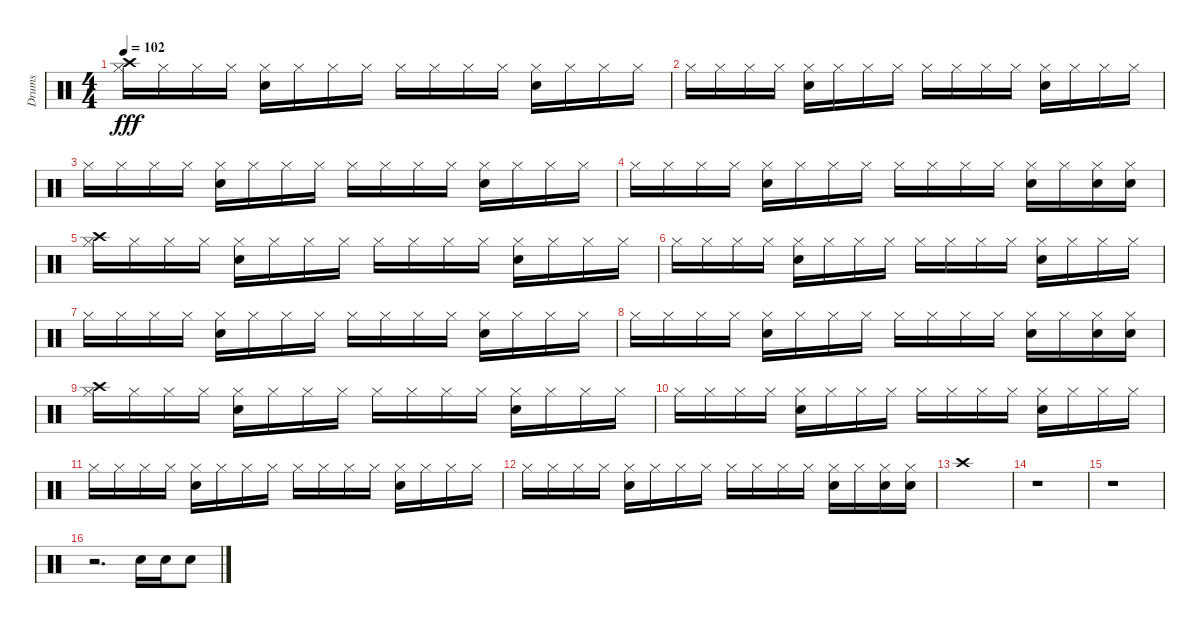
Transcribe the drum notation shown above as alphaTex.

\track ("Drums" "Drums") {instrument percussion}
\staff {score}
\articulation defaults
\ts (4 4)
\tempo 102
\clef neutral
\ks c
("Hi-Hat (closed)" "Crash high (hit)").16{dy fff} "Hi-Hat (closed)".16 "Hi-Hat (closed)".16 "Hi-Hat (closed)".16 ("Hi-Hat (closed)" "Hand Clap (hit)").16 "Hi-Hat (closed)".16 "Hi-Hat (closed)".16 "Hi-Hat (closed)".16 "Hi-Hat (closed)".16 "Hi-Hat (closed)".16 "Hi-Hat (closed)".16 "Hi-Hat (closed)".16 ("Hi-Hat (closed)" "Hand Clap (hit)").16 "Hi-Hat (closed)".16 "Hi-Hat (closed)".16 "Hi-Hat (closed)".16 |
"Hi-Hat (closed)".16 "Hi-Hat (closed)".16 "Hi-Hat (closed)".16 "Hi-Hat (closed)".16 ("Hi-Hat (closed)" "Hand Clap (hit)").16 "Hi-Hat (closed)".16 "Hi-Hat (closed)".16 "Hi-Hat (closed)".16 "Hi-Hat (closed)".16 "Hi-Hat (closed)".16 "Hi-Hat (closed)".16 "Hi-Hat (closed)".16 ("Hi-Hat (closed)" "Hand Clap (hit)").16 "Hi-Hat (closed)".16 "Hi-Hat (closed)".16 "Hi-Hat (closed)".16 |
"Hi-Hat (closed)".16 "Hi-Hat (closed)".16 "Hi-Hat (closed)".16 "Hi-Hat (closed)".16 ("Hi-Hat (closed)" "Hand Clap (hit)").16 "Hi-Hat (closed)".16 "Hi-Hat (closed)".16 "Hi-Hat (closed)".16 "Hi-Hat (closed)".16 "Hi-Hat (closed)".16 "Hi-Hat (closed)".16 "Hi-Hat (closed)".16 ("Hi-Hat (closed)" "Hand Clap (hit)").16 "Hi-Hat (closed)".16 "Hi-Hat (closed)".16 "Hi-Hat (closed)".16 |
"Hi-Hat (closed)".16 "Hi-Hat (closed)".16 "Hi-Hat (closed)".16 "Hi-Hat (closed)".16 ("Hi-Hat (closed)" "Hand Clap (hit)").16 "Hi-Hat (closed)".16 "Hi-Hat (closed)".16 "Hi-Hat (closed)".16 "Hi-Hat (closed)".16 "Hi-Hat (closed)".16 "Hi-Hat (closed)".16 "Hi-Hat (closed)".16 ("Hi-Hat (closed)" "Hand Clap (hit)").16 "Hi-Hat (closed)".16 ("Hi-Hat (closed)" "Hand Clap (hit)").16 ("Hi-Hat (closed)" "Hand Clap (hit)").16 |
("Hi-Hat (closed)" "Crash high (hit)").16 "Hi-Hat (closed)".16 "Hi-Hat (closed)".16 "Hi-Hat (closed)".16 ("Hi-Hat (closed)" "Hand Clap (hit)").16 "Hi-Hat (closed)".16 "Hi-Hat (closed)".16 "Hi-Hat (closed)".16 "Hi-Hat (closed)".16 "Hi-Hat (closed)".16 "Hi-Hat (closed)".16 "Hi-Hat (closed)".16 ("Hi-Hat (closed)" "Hand Clap (hit)").16 "Hi-Hat (closed)".16 "Hi-Hat (closed)".16 "Hi-Hat (closed)".16 |
"Hi-Hat (closed)".16 "Hi-Hat (closed)".16 "Hi-Hat (closed)".16 "Hi-Hat (closed)".16 ("Hi-Hat (closed)" "Hand Clap (hit)").16 "Hi-Hat (closed)".16 "Hi-Hat (closed)".16 "Hi-Hat (closed)".16 "Hi-Hat (closed)".16 "Hi-Hat (closed)".16 "Hi-Hat (closed)".16 "Hi-Hat (closed)".16 ("Hi-Hat (closed)" "Hand Clap (hit)").16 "Hi-Hat (closed)".16 "Hi-Hat (closed)".16 "Hi-Hat (closed)".16 |
"Hi-Hat (closed)".16 "Hi-Hat (closed)".16 "Hi-Hat (closed)".16 "Hi-Hat (closed)".16 ("Hi-Hat (closed)" "Hand Clap (hit)").16 "Hi-Hat (closed)".16 "Hi-Hat (closed)".16 "Hi-Hat (closed)".16 "Hi-Hat (closed)".16 "Hi-Hat (closed)".16 "Hi-Hat (closed)".16 "Hi-Hat (closed)".16 ("Hi-Hat (closed)" "Hand Clap (hit)").16 "Hi-Hat (closed)".16 "Hi-Hat (closed)".16 "Hi-Hat (closed)".16 |
"Hi-Hat (closed)".16 "Hi-Hat (closed)".16 "Hi-Hat (closed)".16 "Hi-Hat (closed)".16 ("Hi-Hat (closed)" "Hand Clap (hit)").16 "Hi-Hat (closed)".16 "Hi-Hat (closed)".16 "Hi-Hat (closed)".16 "Hi-Hat (closed)".16 "Hi-Hat (closed)".16 "Hi-Hat (closed)".16 "Hi-Hat (closed)".16 ("Hi-Hat (closed)" "Hand Clap (hit)").16 "Hi-Hat (closed)".16 ("Hi-Hat (closed)" "Hand Clap (hit)").16 ("Hi-Hat (closed)" "Hand Clap (hit)").16 |
("Hi-Hat (closed)" "Crash high (hit)").16 "Hi-Hat (closed)".16 "Hi-Hat (closed)".16 "Hi-Hat (closed)".16 ("Hi-Hat (closed)" "Hand Clap (hit)").16 "Hi-Hat (closed)".16 "Hi-Hat (closed)".16 "Hi-Hat (closed)".16 "Hi-Hat (closed)".16 "Hi-Hat (closed)".16 "Hi-Hat (closed)".16 "Hi-Hat (closed)".16 ("Hi-Hat (closed)" "Hand Clap (hit)").16 "Hi-Hat (closed)".16 "Hi-Hat (closed)".16 "Hi-Hat (closed)".16 |
"Hi-Hat (closed)".16 "Hi-Hat (closed)".16 "Hi-Hat (closed)".16 "Hi-Hat (closed)".16 ("Hi-Hat (closed)" "Hand Clap (hit)").16 "Hi-Hat (closed)".16 "Hi-Hat (closed)".16 "Hi-Hat (closed)".16 "Hi-Hat (closed)".16 "Hi-Hat (closed)".16 "Hi-Hat (closed)".16 "Hi-Hat (closed)".16 ("Hi-Hat (closed)" "Hand Clap (hit)").16 "Hi-Hat (closed)".16 "Hi-Hat (closed)".16 "Hi-Hat (closed)".16 |
"Hi-Hat (closed)".16 "Hi-Hat (closed)".16 "Hi-Hat (closed)".16 "Hi-Hat (closed)".16 ("Hi-Hat (closed)" "Hand Clap (hit)").16 "Hi-Hat (closed)".16 "Hi-Hat (closed)".16 "Hi-Hat (closed)".16 "Hi-Hat (closed)".16 "Hi-Hat (closed)".16 "Hi-Hat (closed)".16 "Hi-Hat (closed)".16 ("Hi-Hat (closed)" "Hand Clap (hit)").16 "Hi-Hat (closed)".16 "Hi-Hat (closed)".16 "Hi-Hat (closed)".16 |
"Hi-Hat (closed)".16 "Hi-Hat (closed)".16 "Hi-Hat (closed)".16 "Hi-Hat (closed)".16 ("Hi-Hat (closed)" "Hand Clap (hit)").16 "Hi-Hat (closed)".16 "Hi-Hat (closed)".16 "Hi-Hat (closed)".16 "Hi-Hat (closed)".16 "Hi-Hat (closed)".16 "Hi-Hat (closed)".16 "Hi-Hat (closed)".16 ("Hi-Hat (closed)" "Hand Clap (hit)").16 "Hi-Hat (closed)".16 ("Hi-Hat (closed)" "Hand Clap (hit)").16 ("Hi-Hat (closed)" "Hand Clap (hit)").16 |
"Crash high (hit)".1 |
r.1 |
r.1 |
r.2{d} "Hand Clap (hit)".16 "Hand Clap (hit)".16 "Hand Clap (hit)".8
